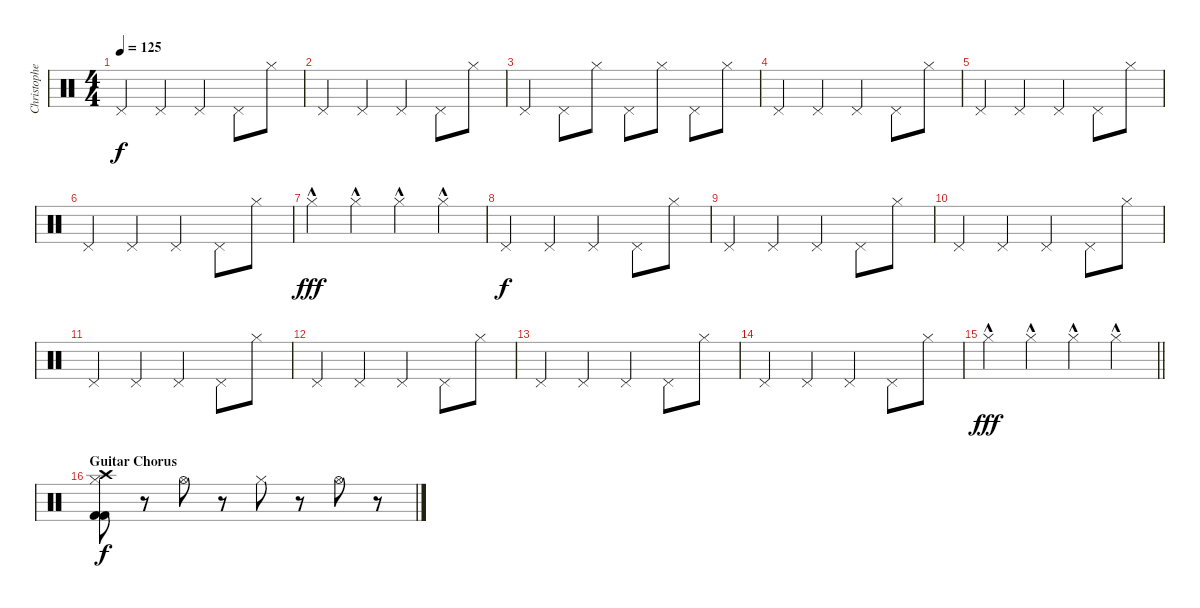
\track ("Christopher S. (Drums)" "Christophe") {instrument percussion}
\staff {score}
\articulation defaults
\ts (4 4)
\tempo 125
\clef neutral
\ks c "Pedal Hi-Hat (hit)".4{dy f} "Pedal Hi-Hat (hit)".4 "Pedal Hi-Hat (hit)".4 "Pedal Hi-Hat (hit)".8 "Hi-Hat (closed)".8
|
"Pedal Hi-Hat (hit)".4 "Pedal Hi-Hat (hit)".4 "Pedal Hi-Hat (hit)".4 "Pedal Hi-Hat (hit)".8 "Hi-Hat (closed)".8 |
"Pedal Hi-Hat (hit)".4 "Pedal Hi-Hat (hit)".8 "Hi-Hat (closed)".8 "Pedal Hi-Hat (hit)".8 "Hi-Hat (closed)".8 "Pedal Hi-Hat (hit)".8 "Hi-Hat (closed)".8 |
"Pedal Hi-Hat (hit)".4 "Pedal Hi-Hat (hit)".4 "Pedal Hi-Hat (hit)".4 "Pedal Hi-Hat (hit)".8 "Hi-Hat (closed)".8 |
"Pedal Hi-Hat (hit)".4 "Pedal Hi-Hat (hit)".4 "Pedal Hi-Hat (hit)".4 "Pedal Hi-Hat (hit)".8 "Hi-Hat (closed)".8 |
"Pedal Hi-Hat (hit)".4 "Pedal Hi-Hat (hit)".4 "Pedal Hi-Hat (hit)".4 "Pedal Hi-Hat (hit)".8 "Hi-Hat (closed)".8 |
"Hi-Hat (closed)"{hac}.4{dy fff} "Hi-Hat (closed)"{hac}.4 "Hi-Hat (closed)"{hac}.4 "Hi-Hat (closed)"{hac}.4 |
"Pedal Hi-Hat (hit)".4{dy f} "Pedal Hi-Hat (hit)".4 "Pedal Hi-Hat (hit)".4 "Pedal Hi-Hat (hit)".8 "Hi-Hat (closed)".8 |
"Pedal Hi-Hat (hit)".4 "Pedal Hi-Hat (hit)".4 "Pedal Hi-Hat (hit)".4 "Pedal Hi-Hat (hit)".8 "Hi-Hat (closed)".8 |
"Pedal Hi-Hat (hit)".4 "Pedal Hi-Hat (hit)".4 "Pedal Hi-Hat (hit)".4 "Pedal Hi-Hat (hit)".8 "Hi-Hat (closed)".8 |
"Pedal Hi-Hat (hit)".4 "Pedal Hi-Hat (hit)".4 "Pedal Hi-Hat (hit)".4 "Pedal Hi-Hat (hit)".8 "Hi-Hat (closed)".8 |
"Pedal Hi-Hat (hit)".4 "Pedal Hi-Hat (hit)".4 "Pedal Hi-Hat (hit)".4 "Pedal Hi-Hat (hit)".8 "Hi-Hat (closed)".8 |
"Pedal Hi-Hat (hit)".4 "Pedal Hi-Hat (hit)".4 "Pedal Hi-Hat (hit)".4 "Pedal Hi-Hat (hit)".8 "Hi-Hat (closed)".8 |
"Pedal Hi-Hat (hit)".4 "Pedal Hi-Hat (hit)".4 "Pedal Hi-Hat (hit)".4 "Pedal Hi-Hat (hit)".8 "Hi-Hat (closed)".8 |
\barLineRight lightlight "Hi-Hat (closed)"{hac}.4{dy fff} "Hi-Hat (closed)"{hac}.4 "Hi-Hat (closed)"{hac}.4 "Hi-Hat (closed)"{hac}.4
|
\section ("" "Guitar Chorus")
("Hi-Hat (closed)" "Kick (hit) 2" "Kick (hit) 2" "Crash high (hit)").8{dy f} r.8 "Hi-Hat (open)".8 r.8 "Hi-Hat (closed)".8 r.8 "Hi-Hat (open)".8 r.8
